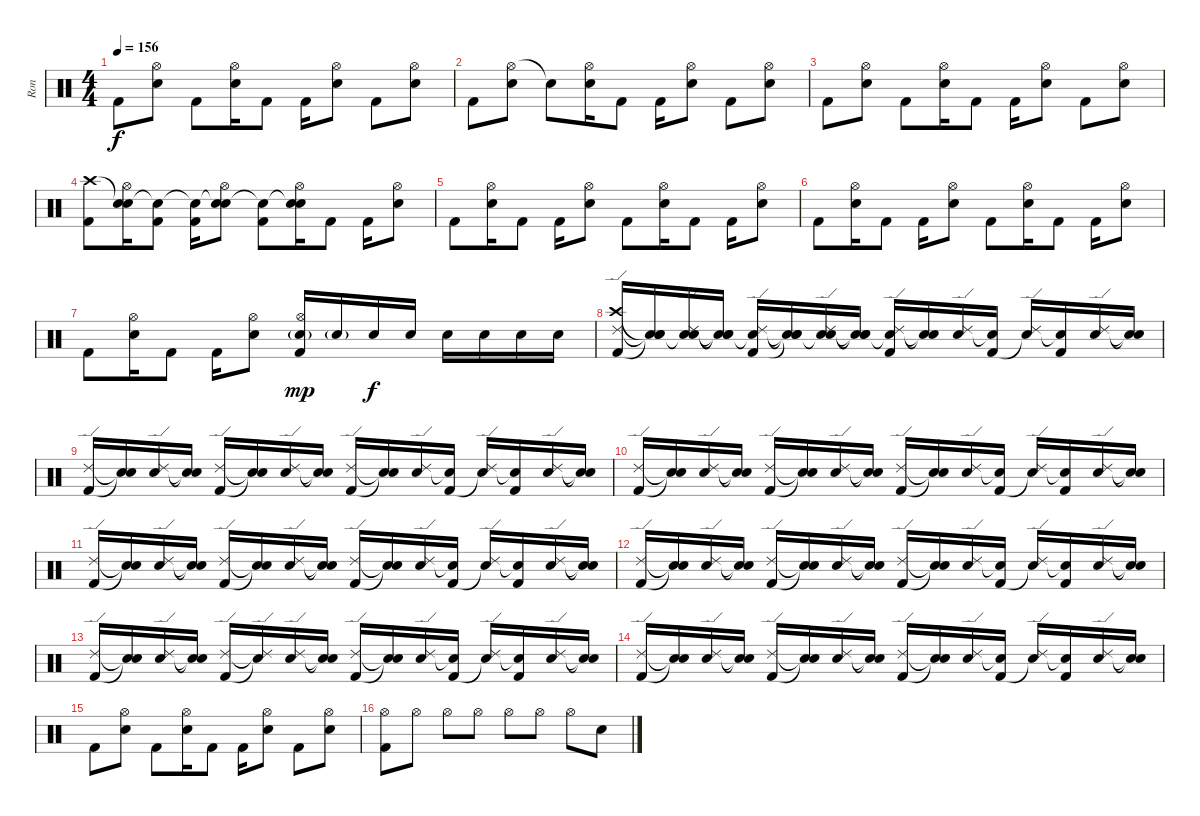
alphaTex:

\track ("Ron" "Ron") {instrument percussion}
\staff {score}
\articulation defaults
\ts (4 4)
\tempo 156
\clef neutral
\ks c "Kick (hit) 2".8{dy f}
("Hi-Hat (open)" "Electric Snare (hit)").8 "Kick (hit) 2".8 ("Hi-Hat (open)" "Electric Snare (hit)").16 "Kick (hit) 2".8 "Kick (hit) 2".16 ("Hi-Hat (open)" "Electric Snare (hit)").8 "Kick (hit) 2".8 ("Hi-Hat (open)" "Electric Snare (hit)").8 |
"Kick (hit) 2".8 ("Hi-Hat (open)" "Electric Snare (hit)").8 "Snare (hit)"{t}.8 ("Hi-Hat (open)" "Electric Snare (hit)").16 "Kick (hit) 2".8 "Kick (hit) 2".16 ("Hi-Hat (open)" "Electric Snare (hit)").8 "Kick (hit) 2".8 ("Hi-Hat (open)" "Electric Snare (hit)").8 |
"Kick (hit) 2".8 ("Hi-Hat (open)" "Electric Snare (hit)").8 "Kick (hit) 2".8 ("Hi-Hat (open)" "Electric Snare (hit)").16 "Kick (hit) 2".8 "Kick (hit) 2".16 ("Hi-Hat (open)" "Electric Snare (hit)").8 "Kick (hit) 2".8 ("Hi-Hat (open)" "Electric Snare (hit)").8 |
("Crash high (hit)" "Kick (hit) 2").8 ("Snare (hit)"{t} "Hi-Hat (open)" "Electric Snare (hit)").16 ("Snare (hit)"{t} "Kick (hit) 2").8 ("Snare (hit)"{t} "Kick (hit) 2").16 ("Snare (hit)"{t} "Hi-Hat (open)" "Electric Snare (hit)").8 ("Snare (hit)"{t} "Kick (hit) 2").8 ("Snare (hit)"{t} "Hi-Hat (open)" "Electric Snare (hit)").16 "Kick (hit) 2".8 "Kick (hit) 2".16 ("Hi-Hat (open)" "Electric Snare (hit)").8 |
"Kick (hit) 2".8 ("Hi-Hat (open)" "Electric Snare (hit)").16 "Kick (hit) 2".8 "Kick (hit) 2".16 ("Hi-Hat (open)" "Electric Snare (hit)").8 "Kick (hit) 2".8 ("Hi-Hat (open)" "Electric Snare (hit)").16 "Kick (hit) 2".8 "Kick (hit) 2".16 ("Hi-Hat (open)" "Electric Snare (hit)").8 |
"Kick (hit) 2".8 ("Hi-Hat (open)" "Electric Snare (hit)").16 "Kick (hit) 2".8 "Kick (hit) 2".16 ("Hi-Hat (open)" "Electric Snare (hit)").8 "Kick (hit) 2".8 ("Hi-Hat (open)" "Electric Snare (hit)").16 "Kick (hit) 2".8 "Kick (hit) 2".16 ("Hi-Hat (open)" "Electric Snare (hit)").8 |
"Kick (hit) 2".8 ("Hi-Hat (open)" "Electric Snare (hit)").16 "Kick (hit) 2".8 "Kick (hit) 2".16 ("Hi-Hat (open)" "Electric Snare (hit)").8 ("Hi-Hat (open)" "Electric Snare (hit)"{g} "Kick (hit) 2").16{dy mp} "Electric Snare (hit)"{g}.16 "Electric Snare (hit)".16{dy f} "Electric Snare (hit)".16 "Electric Snare (hit)".16 "Electric Snare (hit)".16 "Electric Snare (hit)".16 "Electric Snare (hit)".16 |
("Crash high (hit)" "Ride (edge) 2" "Kick (hit) 2").16 ("Snare (hit)"{t} "Snare (hit)"{t} "Snare (hit)"{t}).16 ("Snare (hit)"{t} "Ride (edge) 2" "Electric Snare (hit)").16 ("Snare (hit)"{t} "Snare (hit)"{t} "Snare (hit)"{t}).16 ("Snare (hit)"{t} "Ride (edge) 2" "Kick (hit) 2").16 ("Snare (hit)"{t} "Snare (hit)"{t} "Snare (hit)"{t}).16 ("Snare (hit)"{t} "Ride (edge) 2" "Electric Snare (hit)").16 ("Snare (hit)"{t} "Snare (hit)"{t} "Snare (hit)"{t}).16 ("Snare (hit)"{t} "Ride (edge) 2" "Kick (hit) 2").16 ("Snare (hit)"{t} "Snare (hit)"{t}).16 ("Ride (edge) 2" "Electric Snare (hit)").16 ("Snare (hit)"{t} "Kick (hit) 2").16 ("Ride (edge) 2" "Snare (hit)"{t}).16 ("Snare (hit)"{t} "Kick (hit) 2").16 ("Ride (edge) 2" "Electric Snare (hit)").16 ("Snare (hit)"{t} "Snare (hit)"{t}).16 |
("Ride (edge) 2" "Kick (hit) 2").16 ("Snare (hit)"{t} "Snare (hit)"{t}).16 ("Ride (edge) 2" "Electric Snare (hit)").16 ("Snare (hit)"{t} "Snare (hit)"{t}).16 ("Ride (edge) 2" "Kick (hit) 2").16 ("Snare (hit)"{t} "Snare (hit)"{t}).16 ("Ride (edge) 2" "Electric Snare (hit)").16 ("Snare (hit)"{t} "Snare (hit)"{t}).16 ("Ride (edge) 2" "Kick (hit) 2").16 ("Snare (hit)"{t} "Snare (hit)"{t}).16 ("Ride (edge) 2" "Electric Snare (hit)").16 ("Snare (hit)"{t} "Kick (hit) 2").16 ("Ride (edge) 2" "Snare (hit)"{t}).16 ("Snare (hit)"{t} "Kick (hit) 2").16 ("Ride (edge) 2" "Electric Snare (hit)").16 ("Snare (hit)"{t} "Snare (hit)"{t}).16 |
("Ride (edge) 2" "Kick (hit) 2").16 ("Snare (hit)"{t} "Snare (hit)"{t}).16 ("Ride (edge) 2" "Electric Snare (hit)").16 ("Snare (hit)"{t} "Snare (hit)"{t}).16 ("Ride (edge) 2" "Kick (hit) 2").16 ("Snare (hit)"{t} "Snare (hit)"{t}).16 ("Ride (edge) 2" "Electric Snare (hit)").16 ("Snare (hit)"{t} "Snare (hit)"{t}).16 ("Ride (edge) 2" "Kick (hit) 2").16 ("Snare (hit)"{t} "Snare (hit)"{t}).16 ("Ride (edge) 2" "Electric Snare (hit)").16 ("Snare (hit)"{t} "Kick (hit) 2").16 ("Ride (edge) 2" "Snare (hit)"{t}).16 ("Snare (hit)"{t} "Kick (hit) 2").16 ("Ride (edge) 2" "Electric Snare (hit)").16 ("Snare (hit)"{t} "Snare (hit)"{t}).16 |
("Ride (edge) 2" "Kick (hit) 2").16 ("Snare (hit)"{t} "Snare (hit)"{t}).16 ("Ride (edge) 2" "Electric Snare (hit)").16 ("Snare (hit)"{t} "Snare (hit)"{t}).16 ("Ride (edge) 2" "Kick (hit) 2").16 ("Snare (hit)"{t} "Snare (hit)"{t}).16 ("Ride (edge) 2" "Electric Snare (hit)").16 ("Snare (hit)"{t} "Snare (hit)"{t}).16 ("Ride (edge) 2" "Kick (hit) 2").16 ("Snare (hit)"{t} "Snare (hit)"{t}).16 ("Ride (edge) 2" "Electric Snare (hit)").16 ("Snare (hit)"{t} "Kick (hit) 2").16 ("Ride (edge) 2" "Snare (hit)"{t}).16 ("Snare (hit)"{t} "Kick (hit) 2").16 ("Ride (edge) 2" "Electric Snare (hit)").16 ("Snare (hit)"{t} "Snare (hit)"{t}).16 |
("Ride (edge) 2" "Kick (hit) 2").16 ("Snare (hit)"{t} "Snare (hit)"{t}).16 ("Ride (edge) 2" "Electric Snare (hit)").16 ("Snare (hit)"{t} "Snare (hit)"{t}).16 ("Ride (edge) 2" "Kick (hit) 2").16 ("Snare (hit)"{t} "Snare (hit)"{t}).16 ("Ride (edge) 2" "Electric Snare (hit)").16 ("Snare (hit)"{t} "Snare (hit)"{t}).16 ("Ride (edge) 2" "Kick (hit) 2").16 ("Snare (hit)"{t} "Snare (hit)"{t}).16 ("Ride (edge) 2" "Electric Snare (hit)").16 ("Snare (hit)"{t} "Kick (hit) 2").16 ("Ride (edge) 2" "Snare (hit)"{t}).16 ("Snare (hit)"{t} "Kick (hit) 2").16 ("Ride (edge) 2" "Electric Snare (hit)").16 ("Snare (hit)"{t} "Snare (hit)"{t}).16 |
("Ride (edge) 2" "Kick (hit) 2").16 ("Snare (hit)"{t} "Snare (hit)"{t}).16 ("Ride (edge) 2" "Electric Snare (hit)").16 ("Snare (hit)"{t} "Snare (hit)"{t}).16 ("Ride (edge) 2" "Kick (hit) 2").16 ("Ride (edge) 2"{t} "Snare (hit)"{t}).16 ("Ride (edge) 2" "Electric Snare (hit)").16 ("Snare (hit)"{t} "Snare (hit)"{t}).16 ("Ride (edge) 2" "Kick (hit) 2").16 ("Snare (hit)"{t} "Snare (hit)"{t}).16 ("Ride (edge) 2" "Electric Snare (hit)").16 ("Snare (hit)"{t} "Kick (hit) 2").16 ("Ride (edge) 2" "Snare (hit)"{t}).16 ("Snare (hit)"{t} "Kick (hit) 2").16 ("Ride (edge) 2" "Electric Snare (hit)").16 ("Snare (hit)"{t} "Snare (hit)"{t}).16 |
("Ride (edge) 2" "Kick (hit) 2").16 ("Snare (hit)"{t} "Snare (hit)"{t}).16 ("Ride (edge) 2" "Electric Snare (hit)").16 ("Snare (hit)"{t} "Snare (hit)"{t}).16 ("Ride (edge) 2" "Kick (hit) 2").16 ("Snare (hit)"{t} "Snare (hit)"{t}).16 ("Ride (edge) 2" "Electric Snare (hit)").16 ("Snare (hit)"{t} "Snare (hit)"{t}).16 ("Ride (edge) 2" "Kick (hit) 2").16 ("Snare (hit)"{t} "Snare (hit)"{t}).16 ("Ride (edge) 2" "Electric Snare (hit)").16 ("Snare (hit)"{t} "Kick (hit) 2").16 ("Ride (edge) 2" "Snare (hit)"{t}).16 ("Snare (hit)"{t} "Kick (hit) 2").16 ("Ride (edge) 2" "Electric Snare (hit)").16 ("Snare (hit)"{t} "Snare (hit)"{t}).16 |
"Kick (hit) 2".8 ("Hi-Hat (open)" "Electric Snare (hit)").8 "Kick (hit) 2".8 ("Hi-Hat (open)" "Electric Snare (hit)").16 "Kick (hit) 2".8 "Kick (hit) 2".16 ("Hi-Hat (open)" "Electric Snare (hit)").8 "Kick (hit) 2".8 ("Hi-Hat (open)" "Electric Snare (hit)").8 |
("Hi-Hat (open)" "Kick (hit) 2").8 "Hi-Hat (open)".8 "Hi-Hat (open)".8 "Hi-Hat (open)".8 "Hi-Hat (open)".8 "Hi-Hat (open)".8 "Hi-Hat (open)".8 "Electric Snare (hit)".8
